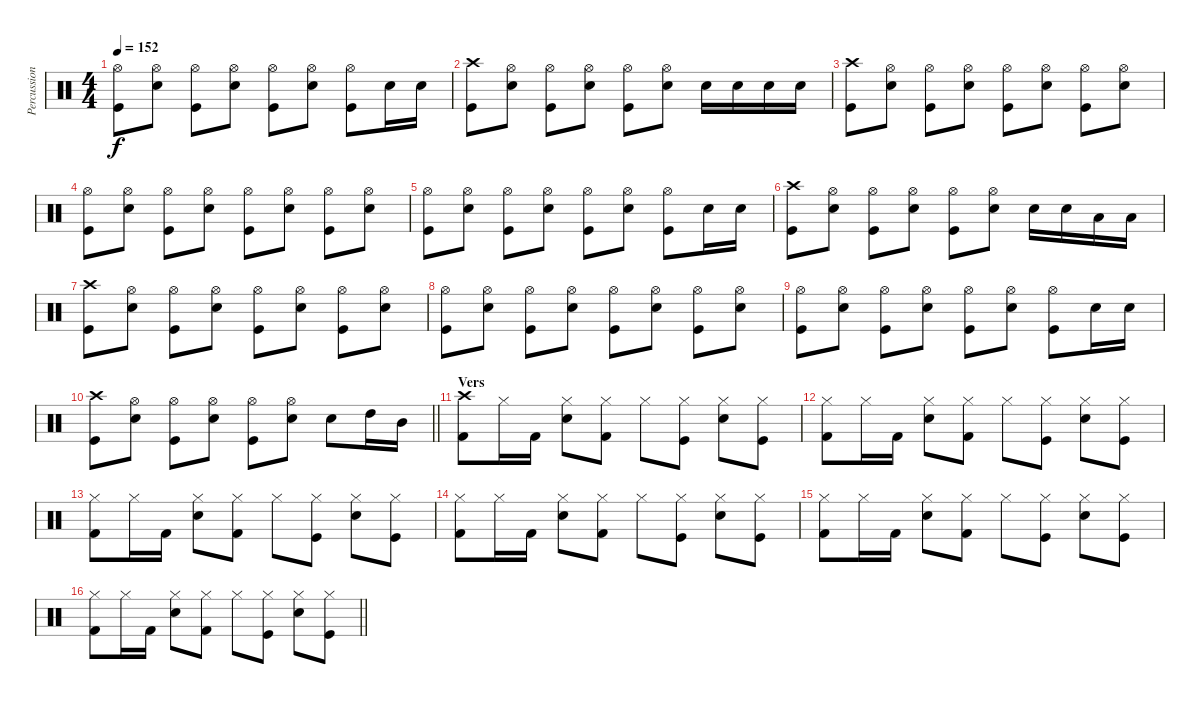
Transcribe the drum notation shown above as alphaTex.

\track ("Percussion" "Percussion") {instrument percussion}
\staff {score}
\articulation defaults
\ts (4 4)
\tempo 152
\clef neutral
\ks c
("Hi-Hat (open)" "Kick (hit)").8{dy f} ("Hi-Hat (open)" "Snare (hit) 2").8 ("Hi-Hat (open)" "Kick (hit)").8 ("Hi-Hat (open)" "Snare (hit) 2").8 ("Hi-Hat (open)" "Kick (hit)").8 ("Hi-Hat (open)" "Snare (hit) 2").8 ("Hi-Hat (open)" "Kick (hit)").8 "Snare (hit) 2".16 "Snare (hit) 2".16 |
("Crash high (hit)" "Kick (hit)").8 ("Hi-Hat (open)" "Snare (hit) 2").8 ("Hi-Hat (open)" "Kick (hit)").8 ("Hi-Hat (open)" "Snare (hit) 2").8 ("Hi-Hat (open)" "Kick (hit)").8 ("Hi-Hat (open)" "Snare (hit) 2").8 "Snare (hit) 2".16 "Snare (hit) 2".16 "Snare (hit) 2".16 "Snare (hit) 2".16 |
("Crash high (hit)" "Kick (hit)").8 ("Hi-Hat (open)" "Snare (hit) 2").8 ("Hi-Hat (open)" "Kick (hit)").8 ("Hi-Hat (open)" "Snare (hit) 2").8 ("Hi-Hat (open)" "Kick (hit)").8 ("Hi-Hat (open)" "Snare (hit) 2").8 ("Hi-Hat (open)" "Kick (hit)").8 ("Hi-Hat (open)" "Snare (hit) 2").8 |
("Hi-Hat (open)" "Kick (hit)").8 ("Hi-Hat (open)" "Snare (hit) 2").8 ("Hi-Hat (open)" "Kick (hit)").8 ("Hi-Hat (open)" "Snare (hit) 2").8 ("Hi-Hat (open)" "Kick (hit)").8 ("Hi-Hat (open)" "Snare (hit) 2").8 ("Hi-Hat (open)" "Kick (hit)").8 ("Hi-Hat (open)" "Snare (hit) 2").8 |
("Hi-Hat (open)" "Kick (hit)").8 ("Hi-Hat (open)" "Snare (hit) 2").8 ("Hi-Hat (open)" "Kick (hit)").8 ("Hi-Hat (open)" "Snare (hit) 2").8 ("Hi-Hat (open)" "Kick (hit)").8 ("Hi-Hat (open)" "Snare (hit) 2").8 ("Hi-Hat (open)" "Kick (hit)").8 "Snare (hit) 2".16 "Snare (hit) 2".16 |
("Crash high (hit)" "Kick (hit)").8 ("Hi-Hat (open)" "Snare (hit) 2").8 ("Hi-Hat (open)" "Kick (hit)").8 ("Hi-Hat (open)" "Snare (hit) 2").8 ("Hi-Hat (open)" "Kick (hit)").8 ("Hi-Hat (open)" "Snare (hit) 2").8 "Snare (hit) 2".16 "Snare (hit) 2".16 "Low Tom (hit)".16 "Low Tom (hit)".16 |
("Crash high (hit)" "Kick (hit)").8 ("Hi-Hat (open)" "Snare (hit) 2").8 ("Hi-Hat (open)" "Kick (hit)").8 ("Hi-Hat (open)" "Snare (hit) 2").8 ("Hi-Hat (open)" "Kick (hit)").8 ("Hi-Hat (open)" "Snare (hit) 2").8 ("Hi-Hat (open)" "Kick (hit)").8 ("Hi-Hat (open)" "Snare (hit) 2").8 |
("Hi-Hat (open)" "Kick (hit)").8 ("Hi-Hat (open)" "Snare (hit) 2").8 ("Hi-Hat (open)" "Kick (hit)").8 ("Hi-Hat (open)" "Snare (hit) 2").8 ("Hi-Hat (open)" "Kick (hit)").8 ("Hi-Hat (open)" "Snare (hit) 2").8 ("Hi-Hat (open)" "Kick (hit)").8 ("Hi-Hat (open)" "Snare (hit) 2").8 |
("Hi-Hat (open)" "Kick (hit)").8 ("Hi-Hat (open)" "Snare (hit) 2").8 ("Hi-Hat (open)" "Kick (hit)").8 ("Hi-Hat (open)" "Snare (hit) 2").8 ("Hi-Hat (open)" "Kick (hit)").8 ("Hi-Hat (open)" "Snare (hit) 2").8 ("Hi-Hat (open)" "Kick (hit)").8 "Snare (hit) 2".16 "Snare (hit) 2".16 |
\barLineRight lightlight
("Crash high (hit)" "Kick (hit)").8 ("Hi-Hat (open)" "Snare (hit) 2").8 ("Hi-Hat (open)" "Kick (hit)").8 ("Hi-Hat (open)" "Snare (hit) 2").8 ("Hi-Hat (open)" "Kick (hit)").8 ("Hi-Hat (open)" "Snare (hit) 2").8 "Snare (hit) 2".8 "High Tom (hit)".16 "Mid Tom (hit)".16 |
\section ("" "Vers")
("Crash high (hit)" "Kick (hit) 2").8 "Hi-Hat (closed)".16 "Kick (hit) 2".16 ("Hi-Hat (closed)" "Snare (hit) 2").8 ("Hi-Hat (closed)" "Kick (hit) 2").8 "Hi-Hat (closed)".8 ("Hi-Hat (closed)" "Kick (hit)").8 ("Hi-Hat (closed)" "Snare (hit) 2").8 ("Hi-Hat (closed)" "Kick (hit)").8 |
("Hi-Hat (closed)" "Kick (hit) 2").8 "Hi-Hat (closed)".16 "Kick (hit) 2".16 ("Hi-Hat (closed)" "Snare (hit) 2").8 ("Hi-Hat (closed)" "Kick (hit) 2").8 "Hi-Hat (closed)".8 ("Hi-Hat (closed)" "Kick (hit)").8 ("Hi-Hat (closed)" "Snare (hit) 2").8 ("Hi-Hat (closed)" "Kick (hit)").8 |
("Hi-Hat (closed)" "Kick (hit) 2").8 "Hi-Hat (closed)".16 "Kick (hit) 2".16 ("Hi-Hat (closed)" "Snare (hit) 2").8 ("Hi-Hat (closed)" "Kick (hit) 2").8 "Hi-Hat (closed)".8 ("Hi-Hat (closed)" "Kick (hit)").8 ("Hi-Hat (closed)" "Snare (hit) 2").8 ("Hi-Hat (closed)" "Kick (hit)").8 |
("Hi-Hat (closed)" "Kick (hit) 2").8 "Hi-Hat (closed)".16 "Kick (hit) 2".16 ("Hi-Hat (closed)" "Snare (hit) 2").8 ("Hi-Hat (closed)" "Kick (hit) 2").8 "Hi-Hat (closed)".8 ("Hi-Hat (closed)" "Kick (hit)").8 ("Hi-Hat (closed)" "Snare (hit) 2").8 ("Hi-Hat (closed)" "Kick (hit)").8 |
("Hi-Hat (closed)" "Kick (hit) 2").8 "Hi-Hat (closed)".16 "Kick (hit) 2".16 ("Hi-Hat (closed)" "Snare (hit) 2").8 ("Hi-Hat (closed)" "Kick (hit) 2").8 "Hi-Hat (closed)".8 ("Hi-Hat (closed)" "Kick (hit)").8 ("Hi-Hat (closed)" "Snare (hit) 2").8 ("Hi-Hat (closed)" "Kick (hit)").8 |
\barLineRight lightlight
("Hi-Hat (closed)" "Kick (hit) 2").8 "Hi-Hat (closed)".16 "Kick (hit) 2".16 ("Hi-Hat (closed)" "Snare (hit) 2").8 ("Hi-Hat (closed)" "Kick (hit) 2").8 "Hi-Hat (closed)".8 ("Hi-Hat (closed)" "Kick (hit)").8 ("Hi-Hat (closed)" "Snare (hit) 2").8 ("Hi-Hat (closed)" "Kick (hit)").8
